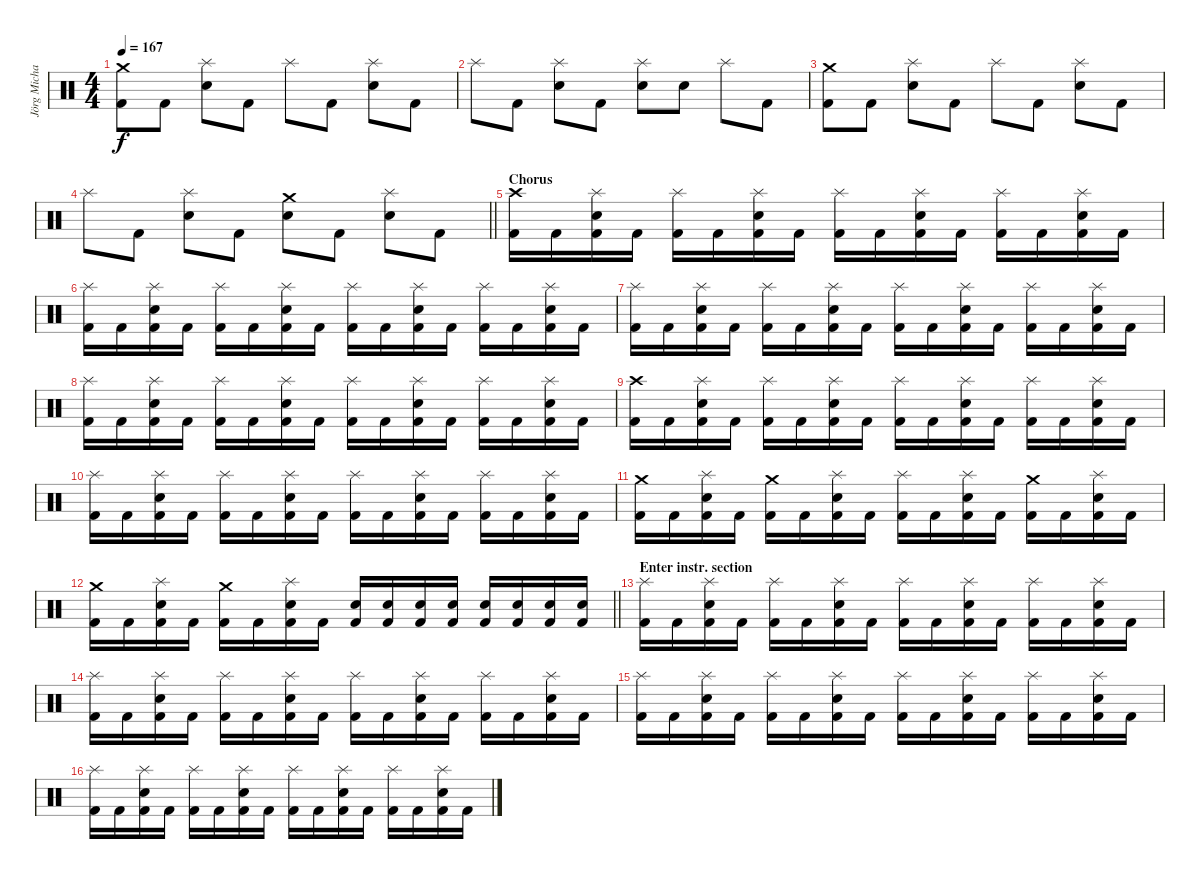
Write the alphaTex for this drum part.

\track ("Jörg Michael" "Jörg Micha") {instrument percussion}
\staff {score}
\articulation defaults
\ts (4 4)
\tempo 167
\clef neutral
\ks c
("Crash medium (hit)" "Kick (hit) 2").8{dy f} "Kick (hit) 2".8 ("Splash (hit)" "Snare (hit) 2").8 "Kick (hit) 2".8 "Splash (hit)".8 "Kick (hit) 2".8 ("Splash (hit)" "Snare (hit) 2").8 "Kick (hit) 2".8 |
"Splash (hit)".8 "Kick (hit) 2".8 ("Splash (hit)" "Snare (hit) 2").8 "Kick (hit) 2".8 ("Splash (hit)" "Snare (hit) 2").8 "Snare (hit) 2".8 "Splash (hit)".8 "Kick (hit) 2".8 |
("Crash medium (hit)" "Kick (hit) 2").8 "Kick (hit) 2".8 ("Splash (hit)" "Snare (hit) 2").8 "Kick (hit) 2".8 "Splash (hit)".8 "Kick (hit) 2".8 ("Splash (hit)" "Snare (hit) 2").8 "Kick (hit) 2".8 |
\barLineRight lightlight "Splash (hit)".8 "Kick (hit) 2".8
("Splash (hit)" "Snare (hit) 2").8 "Kick (hit) 2".8 ("Crash medium (hit)" "Snare (hit) 2").8 "Kick (hit) 2".8 ("Splash (hit)" "Snare (hit) 2").8 "Kick (hit) 2".8 |
\section ("" "Chorus")
("Crash high (hit)" "Kick (hit) 2").16 "Kick (hit) 2".16 ("Splash (hit)" "Snare (hit) 2" "Kick (hit) 2").16 "Kick (hit) 2".16 ("Splash (hit)" "Kick (hit) 2").16 "Kick (hit) 2".16 ("Splash (hit)" "Snare (hit) 2" "Kick (hit) 2").16 "Kick (hit) 2".16 ("Splash (hit)" "Kick (hit) 2").16 "Kick (hit) 2".16 ("Splash (hit)" "Snare (hit) 2" "Kick (hit) 2").16 "Kick (hit) 2".16 ("Splash (hit)" "Kick (hit) 2").16 "Kick (hit) 2".16 ("Splash (hit)" "Snare (hit) 2" "Kick (hit) 2").16 "Kick (hit) 2".16 |
("Splash (hit)" "Kick (hit) 2").16 "Kick (hit) 2".16 ("Splash (hit)" "Snare (hit) 2" "Kick (hit) 2").16 "Kick (hit) 2".16 ("Splash (hit)" "Kick (hit) 2").16 "Kick (hit) 2".16 ("Splash (hit)" "Snare (hit) 2" "Kick (hit) 2").16 "Kick (hit) 2".16 ("Splash (hit)" "Kick (hit) 2").16 "Kick (hit) 2".16 ("Splash (hit)" "Snare (hit) 2" "Kick (hit) 2").16 "Kick (hit) 2".16 ("Splash (hit)" "Kick (hit) 2").16 "Kick (hit) 2".16 ("Splash (hit)" "Snare (hit) 2" "Kick (hit) 2").16 "Kick (hit) 2".16 |
("Splash (hit)" "Kick (hit) 2").16 "Kick (hit) 2".16 ("Splash (hit)" "Snare (hit) 2" "Kick (hit) 2").16 "Kick (hit) 2".16 ("Splash (hit)" "Kick (hit) 2").16 "Kick (hit) 2".16 ("Splash (hit)" "Snare (hit) 2" "Kick (hit) 2").16 "Kick (hit) 2".16 ("Splash (hit)" "Kick (hit) 2").16 "Kick (hit) 2".16 ("Splash (hit)" "Snare (hit) 2" "Kick (hit) 2").16 "Kick (hit) 2".16 ("Splash (hit)" "Kick (hit) 2").16 "Kick (hit) 2".16 ("Splash (hit)" "Snare (hit) 2" "Kick (hit) 2").16 "Kick (hit) 2".16 |
("Splash (hit)" "Kick (hit) 2").16 "Kick (hit) 2".16 ("Splash (hit)" "Snare (hit) 2" "Kick (hit) 2").16 "Kick (hit) 2".16 ("Splash (hit)" "Kick (hit) 2").16 "Kick (hit) 2".16 ("Splash (hit)" "Snare (hit) 2" "Kick (hit) 2").16 "Kick (hit) 2".16 ("Splash (hit)" "Kick (hit) 2").16 "Kick (hit) 2".16 ("Splash (hit)" "Snare (hit) 2" "Kick (hit) 2").16 "Kick (hit) 2".16 ("Splash (hit)" "Kick (hit) 2").16 "Kick (hit) 2".16 ("Splash (hit)" "Snare (hit) 2" "Kick (hit) 2").16 "Kick (hit) 2".16 |
("Crash high (hit)" "Kick (hit) 2").16 "Kick (hit) 2".16 ("Splash (hit)" "Snare (hit) 2" "Kick (hit) 2").16 "Kick (hit) 2".16 ("Splash (hit)" "Kick (hit) 2").16 "Kick (hit) 2".16 ("Splash (hit)" "Snare (hit) 2" "Kick (hit) 2").16 "Kick (hit) 2".16 ("Splash (hit)" "Kick (hit) 2").16 "Kick (hit) 2".16 ("Splash (hit)" "Snare (hit) 2" "Kick (hit) 2").16 "Kick (hit) 2".16 ("Splash (hit)" "Kick (hit) 2").16 "Kick (hit) 2".16 ("Splash (hit)" "Snare (hit) 2" "Kick (hit) 2").16 "Kick (hit) 2".16 |
("Splash (hit)" "Kick (hit) 2").16 "Kick (hit) 2".16 ("Splash (hit)" "Snare (hit) 2" "Kick (hit) 2").16 "Kick (hit) 2".16 ("Splash (hit)" "Kick (hit) 2").16 "Kick (hit) 2".16 ("Splash (hit)" "Snare (hit) 2" "Kick (hit) 2").16 "Kick (hit) 2".16 ("Splash (hit)" "Kick (hit) 2").16 "Kick (hit) 2".16 ("Splash (hit)" "Snare (hit) 2" "Kick (hit) 2").16 "Kick (hit) 2".16 ("Splash (hit)" "Kick (hit) 2").16 "Kick (hit) 2".16 ("Splash (hit)" "Snare (hit) 2" "Kick (hit) 2").16 "Kick (hit) 2".16 |
("Crash medium (hit)" "Kick (hit) 2").16 "Kick (hit) 2".16 ("Splash (hit)" "Snare (hit) 2" "Kick (hit) 2").16 "Kick (hit) 2".16 ("Crash medium (hit)" "Kick (hit) 2").16 "Kick (hit) 2".16 ("Splash (hit)" "Snare (hit) 2" "Kick (hit) 2").16 "Kick (hit) 2".16 ("Splash (hit)" "Kick (hit) 2").16 "Kick (hit) 2".16 ("Splash (hit)" "Snare (hit) 2" "Kick (hit) 2").16 "Kick (hit) 2".16 ("Crash medium (hit)" "Kick (hit) 2").16 "Kick (hit) 2".16 ("Splash (hit)" "Snare (hit) 2" "Kick (hit) 2").16 "Kick (hit) 2".16 |
\barLineRight lightlight
("Crash medium (hit)" "Kick (hit) 2").16 "Kick (hit) 2".16 ("Splash (hit)" "Snare (hit) 2" "Kick (hit) 2").16 "Kick (hit) 2".16 ("Crash medium (hit)" "Kick (hit) 2").16 "Kick (hit) 2".16 ("Splash (hit)" "Snare (hit) 2" "Kick (hit) 2").16 "Kick (hit) 2".16 ("Snare (hit) 2" "Kick (hit) 2").16 ("Snare (hit) 2" "Kick (hit) 2").16 ("Snare (hit) 2" "Kick (hit) 2").16 ("Snare (hit) 2" "Kick (hit) 2").16 ("Snare (hit) 2" "Kick (hit) 2").16 ("Snare (hit) 2" "Kick (hit) 2").16 ("Snare (hit) 2" "Kick (hit) 2").16 ("Snare (hit) 2" "Kick (hit) 2").16 |
\section ("" "Enter instr. section")
("Splash (hit)" "Kick (hit) 2").16 "Kick (hit) 2".16 ("Splash (hit)" "Snare (hit) 2" "Kick (hit) 2").16 "Kick (hit) 2".16 ("Splash (hit)" "Kick (hit) 2").16 "Kick (hit) 2".16 ("Splash (hit)" "Snare (hit) 2" "Kick (hit) 2").16 "Kick (hit) 2".16 ("Splash (hit)" "Kick (hit) 2").16 "Kick (hit) 2".16 ("Splash (hit)" "Snare (hit) 2" "Kick (hit) 2").16 "Kick (hit) 2".16 ("Splash (hit)" "Kick (hit) 2").16 "Kick (hit) 2".16 ("Splash (hit)" "Snare (hit) 2" "Kick (hit) 2").16 "Kick (hit) 2".16 |
("Splash (hit)" "Kick (hit) 2").16 "Kick (hit) 2".16 ("Splash (hit)" "Snare (hit) 2" "Kick (hit) 2").16 "Kick (hit) 2".16 ("Splash (hit)" "Kick (hit) 2").16 "Kick (hit) 2".16 ("Splash (hit)" "Snare (hit) 2" "Kick (hit) 2").16 "Kick (hit) 2".16 ("Splash (hit)" "Kick (hit) 2").16 "Kick (hit) 2".16 ("Splash (hit)" "Snare (hit) 2" "Kick (hit) 2").16 "Kick (hit) 2".16 ("Splash (hit)" "Kick (hit) 2").16 "Kick (hit) 2".16 ("Splash (hit)" "Snare (hit) 2" "Kick (hit) 2").16 "Kick (hit) 2".16 |
("Splash (hit)" "Kick (hit) 2").16 "Kick (hit) 2".16 ("Splash (hit)" "Snare (hit) 2" "Kick (hit) 2").16 "Kick (hit) 2".16 ("Splash (hit)" "Kick (hit) 2").16 "Kick (hit) 2".16 ("Splash (hit)" "Snare (hit) 2" "Kick (hit) 2").16 "Kick (hit) 2".16 ("Splash (hit)" "Kick (hit) 2").16 "Kick (hit) 2".16 ("Splash (hit)" "Snare (hit) 2" "Kick (hit) 2").16 "Kick (hit) 2".16 ("Splash (hit)" "Kick (hit) 2").16 "Kick (hit) 2".16 ("Splash (hit)" "Snare (hit) 2" "Kick (hit) 2").16 "Kick (hit) 2".16 |
("Splash (hit)" "Kick (hit) 2").16 "Kick (hit) 2".16 ("Splash (hit)" "Snare (hit) 2" "Kick (hit) 2").16 "Kick (hit) 2".16 ("Splash (hit)" "Kick (hit) 2").16 "Kick (hit) 2".16 ("Splash (hit)" "Snare (hit) 2" "Kick (hit) 2").16 "Kick (hit) 2".16 ("Splash (hit)" "Kick (hit) 2").16 "Kick (hit) 2".16 ("Splash (hit)" "Snare (hit) 2" "Kick (hit) 2").16 "Kick (hit) 2".16 ("Splash (hit)" "Kick (hit) 2").16 "Kick (hit) 2".16 ("Splash (hit)" "Snare (hit) 2" "Kick (hit) 2").16 "Kick (hit) 2".16
